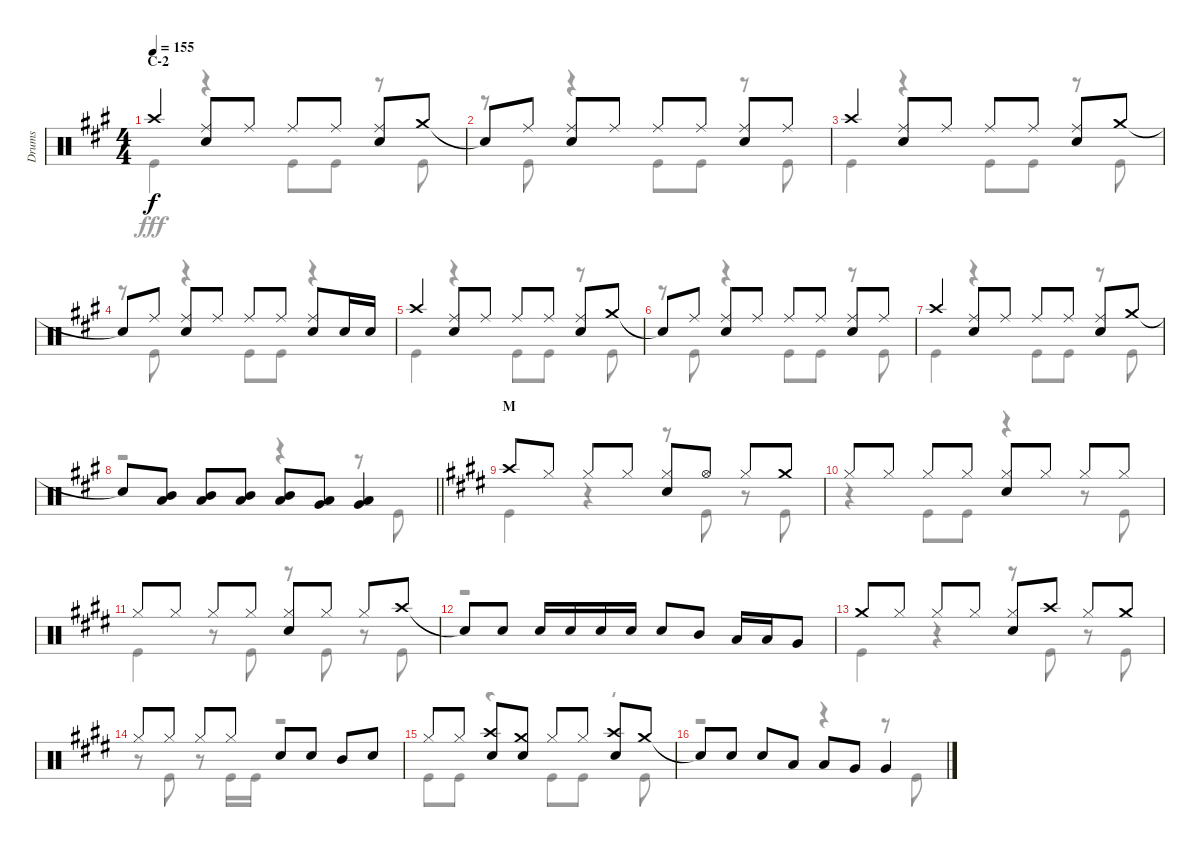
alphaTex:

\track ("Drums" "Drums") {instrument percussion}
\staff {score}
\articulation defaults
\voice
\ts (4 4)
\section ("" "C-2")
\tempo 155
\clef neutral
\ks a "Crash high (hit)".4{dy f}
("Ride (middle)" "Snare (hit) 2").8 "Ride (middle)".8 "Ride (middle)".8 "Ride (middle)".8 ("Ride (middle)" "Snare (hit) 2").8 "Crash medium (hit)".8 |
"Snare (hit)"{t}.8 "Ride (middle)".8 ("Ride (middle)" "Snare (hit) 2").8 "Ride (middle)".8 "Ride (middle)".8 "Ride (middle)".8 ("Ride (middle)" "Snare (hit) 2").8 "Ride (middle)".8 |
"Crash high (hit)".4 ("Ride (middle)" "Snare (hit) 2").8 "Ride (middle)".8 "Ride (middle)".8 "Ride (middle)".8 ("Ride (middle)" "Snare (hit) 2").8 "Crash medium (hit)".8 |
"Snare (hit)"{t}.8 "Ride (middle)".8 ("Ride (middle)" "Snare (hit) 2").8 "Ride (middle)".8 "Ride (middle)".8 "Ride (middle)".8 ("Ride (middle)" "Snare (hit) 2").8 "Snare (hit) 2".16 "Snare (hit) 2".16 |
"Crash high (hit)".4 ("Ride (middle)" "Snare (hit) 2").8 "Ride (middle)".8 "Ride (middle)".8 "Ride (middle)".8 ("Ride (middle)" "Snare (hit) 2").8 "Crash medium (hit)".8 |
"Snare (hit)"{t}.8 "Ride (middle)".8 ("Ride (middle)" "Snare (hit) 2").8 "Ride (middle)".8 "Ride (middle)".8 "Ride (middle)".8 ("Ride (middle)" "Snare (hit) 2").8 "Ride (middle)".8 |
"Crash high (hit)".4 ("Ride (middle)" "Snare (hit) 2").8 "Ride (middle)".8 "Ride (middle)".8 "Ride (middle)".8 ("Ride (middle)" "Snare (hit) 2").8 "Crash medium (hit)".8 |
\barLineRight lightlight "Snare (hit)"{t}.8
("Mid Tom (hit)" "Low Tom (hit)").8 ("Mid Tom (hit)" "Low Tom (hit)").8 ("Mid Tom (hit)" "Low Tom (hit)").8 ("Mid Tom (hit)" "Low Tom (hit)").8 ("Low Tom (hit)" "Very Low Tom (hit)").8 ("Low Tom (hit)" "Very Low Tom (hit)").4 |
\section ("" "M")
\ks e "Crash high (hit)".8 "Hi-Hat (closed)".8 "Hi-Hat (closed)".8 "Hi-Hat (closed)".8
("Hi-Hat (closed)" "Snare (hit) 2").8 "Hi-Hat (open)".8 "Hi-Hat (closed)".8 "Crash medium (hit)".8 |
"Hi-Hat (closed)".8 "Hi-Hat (closed)".8 "Hi-Hat (closed)".8 "Hi-Hat (closed)".8 ("Hi-Hat (closed)" "Snare (hit) 2").8 "Hi-Hat (closed)".8 "Hi-Hat (closed)".8 "Hi-Hat (closed)".8 |
"Hi-Hat (closed)".8 "Hi-Hat (closed)".8 "Hi-Hat (closed)".8 "Hi-Hat (closed)".8 ("Hi-Hat (closed)" "Snare (hit) 2").8 "Hi-Hat (closed)".8 "Hi-Hat (closed)".8 "Crash high (hit)".8 |
"Snare (hit)"{t}.8 "Snare (hit) 2".8 "Snare (hit) 2".16 "Snare (hit) 2".16 "Snare (hit) 2".16 "Snare (hit) 2".16 "Snare (hit) 2".8 "Mid Tom (hit)".8 "Low Tom (hit)".16 "Low Tom (hit)".16 "Very Low Tom (hit)".8 |
"Crash medium (hit)".8 "Hi-Hat (closed)".8 "Hi-Hat (closed)".8 "Hi-Hat (closed)".8 ("Hi-Hat (closed)" "Snare (hit) 2").8 "Crash high (hit)".8 "Hi-Hat (closed)".8 "Crash medium (hit)".8 |
"Hi-Hat (closed)".8 "Hi-Hat (closed)".8 "Hi-Hat (closed)".8 "Hi-Hat (closed)".8 "Snare (hit) 2".8 "Snare (hit) 2".8 "Mid Tom (hit)".8 "Snare (hit) 2".8 |
"Hi-Hat (closed)".8 "Hi-Hat (closed)".8 ("Crash high (hit)" "Snare (hit) 2").8 ("Crash medium (hit)" "Snare (hit) 2").8 "Hi-Hat (closed)".8 "Hi-Hat (closed)".8 ("Crash high (hit)" "Snare (hit) 2").8 "Crash medium (hit)".8 |
"Snare (hit)"{t}.8 "Snare (hit) 2".8 "Snare (hit) 2".8 "Low Tom (hit)".8 "Low Tom (hit)".8 "Very Low Tom (hit)".8 "Very Low Tom (hit)".4
\voice
\clef neutral
\ottava regular
\simile none
\ks a "Kick (hit)".4{dy fff}
r.4 "Kick (hit)".8 "Kick (hit)".8 r.8 "Kick (hit)".8 |
r.8 "Kick (hit)".8 r.4 "Kick (hit)".8 "Kick (hit)".8 r.8 "Kick (hit)".8 |
"Kick (hit)".4 r.4 "Kick (hit)".8 "Kick (hit)".8 r.8 "Kick (hit)".8 |
r.8 "Kick (hit)".8 r.4 "Kick (hit)".8 "Kick (hit)".8 r.4 |
"Kick (hit)".4 r.4 "Kick (hit)".8 "Kick (hit)".8 r.8 "Kick (hit)".8 |
r.8 "Kick (hit)".8 r.4 "Kick (hit)".8 "Kick (hit)".8 r.8 "Kick (hit)".8 |
"Kick (hit)".4 r.4 "Kick (hit)".8 "Kick (hit)".8 r.8 "Kick (hit)".8 |
\barLineRight lightlight
r.2 r.4 r.8 "Kick (hit)".8 |
\ks e "Kick (hit)".4
r.4 r.8 "Kick (hit)".8 r.8 "Kick (hit)".8 |
r.4 "Kick (hit)".8 "Kick (hit)".8 r.4 r.8 "Kick (hit)".8 |
"Kick (hit)".4 r.8 "Kick (hit)".8 r.8 "Kick (hit)".8 r.8 "Kick (hit)".8 |
r.1 |
"Kick (hit)".4 r.4 r.8 "Kick (hit)".8 r.8 "Kick (hit)".8 |
r.8 "Kick (hit)".8 r.8 "Kick (hit)".16 "Kick (hit)".16 r.2 |
"Kick (hit)".8 "Kick (hit)".8 r.4 "Kick (hit)".8 "Kick (hit)".8 r.8 "Kick (hit)".8 |
r.2 r.4 r.8 "Kick (hit)".8
